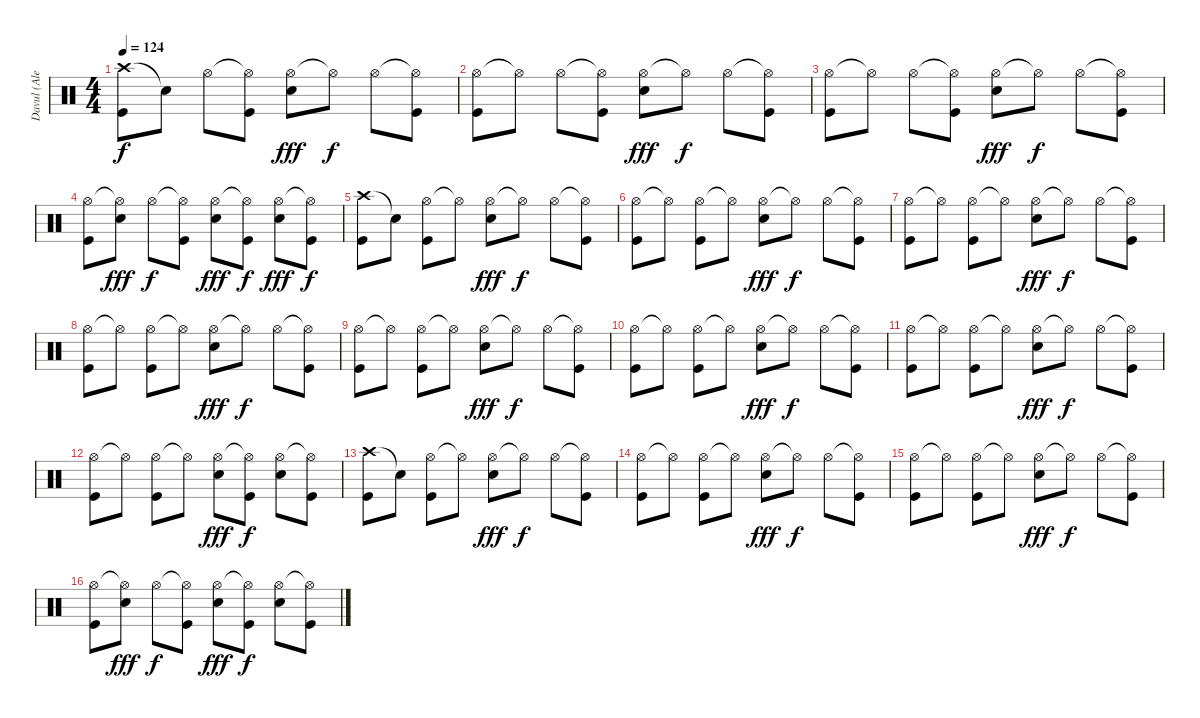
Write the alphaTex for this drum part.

\track ("Davul (Alen)" "Davul (Ale") {instrument percussion}
\staff {score}
\articulation defaults
\ts (4 4)
\tempo 124
\clef neutral
\ks c
("Crash high (hit)" "Kick (hit)").8{dy f} "Snare (hit)"{t}.8 "Hi-Hat (open)".8 ("Hi-Hat (open)"{t} "Kick (hit)").8 ("Hi-Hat (open)" "Electric Snare (hit)").8{dy fff} "Hi-Hat (open)"{t}.8{dy f} "Hi-Hat (open)".8 ("Hi-Hat (open)"{t} "Kick (hit)").8 |
("Hi-Hat (open)" "Kick (hit)").8 "Hi-Hat (open)"{t}.8 "Hi-Hat (open)".8 ("Hi-Hat (open)"{t} "Kick (hit)").8 ("Hi-Hat (open)" "Electric Snare (hit)").8{dy fff} "Hi-Hat (open)"{t}.8{dy f} "Hi-Hat (open)".8 ("Hi-Hat (open)"{t} "Kick (hit)").8 |
("Hi-Hat (open)" "Kick (hit)").8 "Hi-Hat (open)"{t}.8 "Hi-Hat (open)".8 ("Hi-Hat (open)"{t} "Kick (hit)").8 ("Hi-Hat (open)" "Electric Snare (hit)").8{dy fff} "Hi-Hat (open)"{t}.8{dy f} "Hi-Hat (open)".8 ("Hi-Hat (open)"{t} "Kick (hit)").8 |
("Hi-Hat (open)" "Kick (hit)").8 ("Hi-Hat (open)"{t} "Electric Snare (hit)").8{dy fff} "Hi-Hat (open)".8{dy f} ("Hi-Hat (open)"{t} "Kick (hit)").8 ("Hi-Hat (open)" "Electric Snare (hit)").8{dy fff} ("Hi-Hat (open)"{t} "Kick (hit)").8{dy f} ("Hi-Hat (open)" "Electric Snare (hit)").8{dy fff} ("Hi-Hat (open)"{t} "Kick (hit)").8{dy f} |
("Crash high (hit)" "Kick (hit)").8 "Snare (hit)"{t}.8 ("Hi-Hat (open)" "Kick (hit)").8 "Hi-Hat (open)"{t}.8 ("Hi-Hat (open)" "Electric Snare (hit)").8{dy fff} "Hi-Hat (open)"{t}.8{dy f} "Hi-Hat (open)".8 ("Hi-Hat (open)"{t} "Kick (hit)").8 |
("Hi-Hat (open)" "Kick (hit)").8 "Hi-Hat (open)"{t}.8 ("Hi-Hat (open)" "Kick (hit)").8 "Hi-Hat (open)"{t}.8 ("Hi-Hat (open)" "Electric Snare (hit)").8{dy fff} "Hi-Hat (open)"{t}.8{dy f} "Hi-Hat (open)".8 ("Hi-Hat (open)"{t} "Kick (hit)").8 |
("Hi-Hat (open)" "Kick (hit)").8 "Hi-Hat (open)"{t}.8 ("Hi-Hat (open)" "Kick (hit)").8 "Hi-Hat (open)"{t}.8 ("Hi-Hat (open)" "Electric Snare (hit)").8{dy fff} "Hi-Hat (open)"{t}.8{dy f} "Hi-Hat (open)".8 ("Hi-Hat (open)"{t} "Kick (hit)").8 |
("Hi-Hat (open)" "Kick (hit)").8 "Hi-Hat (open)"{t}.8 ("Hi-Hat (open)" "Kick (hit)").8 "Hi-Hat (open)"{t}.8 ("Hi-Hat (open)" "Electric Snare (hit)").8{dy fff} "Hi-Hat (open)"{t}.8{dy f} "Hi-Hat (open)".8 ("Hi-Hat (open)"{t} "Kick (hit)").8 |
("Hi-Hat (open)" "Kick (hit)").8 "Hi-Hat (open)"{t}.8 ("Hi-Hat (open)" "Kick (hit)").8 "Hi-Hat (open)"{t}.8 ("Hi-Hat (open)" "Electric Snare (hit)").8{dy fff} "Hi-Hat (open)"{t}.8{dy f} "Hi-Hat (open)".8 ("Hi-Hat (open)"{t} "Kick (hit)").8 |
("Hi-Hat (open)" "Kick (hit)").8 "Hi-Hat (open)"{t}.8 ("Hi-Hat (open)" "Kick (hit)").8 "Hi-Hat (open)"{t}.8 ("Hi-Hat (open)" "Electric Snare (hit)").8{dy fff} "Hi-Hat (open)"{t}.8{dy f} "Hi-Hat (open)".8 ("Hi-Hat (open)"{t} "Kick (hit)").8 |
("Hi-Hat (open)" "Kick (hit)").8 "Hi-Hat (open)"{t}.8 ("Hi-Hat (open)" "Kick (hit)").8 "Hi-Hat (open)"{t}.8 ("Hi-Hat (open)" "Electric Snare (hit)").8{dy fff} "Hi-Hat (open)"{t}.8{dy f} "Hi-Hat (open)".8 ("Hi-Hat (open)"{t} "Kick (hit)").8 |
("Hi-Hat (open)" "Kick (hit)").8 "Hi-Hat (open)"{t}.8 ("Hi-Hat (open)" "Kick (hit)").8 "Hi-Hat (open)"{t}.8 ("Hi-Hat (open)" "Electric Snare (hit)").8{dy fff} ("Hi-Hat (open)"{t} "Kick (hit)").8{dy f} ("Hi-Hat (open)" "Electric Snare (hit)").8 ("Hi-Hat (open)"{t} "Kick (hit)").8 |
("Crash high (hit)" "Kick (hit)").8 "Snare (hit)"{t}.8 ("Hi-Hat (open)" "Kick (hit)").8 "Hi-Hat (open)"{t}.8 ("Hi-Hat (open)" "Electric Snare (hit)").8{dy fff} "Hi-Hat (open)"{t}.8{dy f} "Hi-Hat (open)".8 ("Hi-Hat (open)"{t} "Kick (hit)").8 |
("Hi-Hat (open)" "Kick (hit)").8 "Hi-Hat (open)"{t}.8 ("Hi-Hat (open)" "Kick (hit)").8 "Hi-Hat (open)"{t}.8 ("Hi-Hat (open)" "Electric Snare (hit)").8{dy fff} "Hi-Hat (open)"{t}.8{dy f} "Hi-Hat (open)".8 ("Hi-Hat (open)"{t} "Kick (hit)").8 |
("Hi-Hat (open)" "Kick (hit)").8 "Hi-Hat (open)"{t}.8 ("Hi-Hat (open)" "Kick (hit)").8 "Hi-Hat (open)"{t}.8 ("Hi-Hat (open)" "Electric Snare (hit)").8{dy fff} "Hi-Hat (open)"{t}.8{dy f} "Hi-Hat (open)".8 ("Hi-Hat (open)"{t} "Kick (hit)").8 |
("Hi-Hat (open)" "Kick (hit)").8 ("Hi-Hat (open)"{t} "Electric Snare (hit)").8{dy fff} "Hi-Hat (open)".8{dy f} ("Hi-Hat (open)"{t} "Kick (hit)").8 ("Hi-Hat (open)" "Electric Snare (hit)").8{dy fff} ("Hi-Hat (open)"{t} "Kick (hit)").8{dy f} ("Hi-Hat (open)" "Electric Snare (hit)").8 ("Hi-Hat (open)"{t} "Kick (hit)").8
